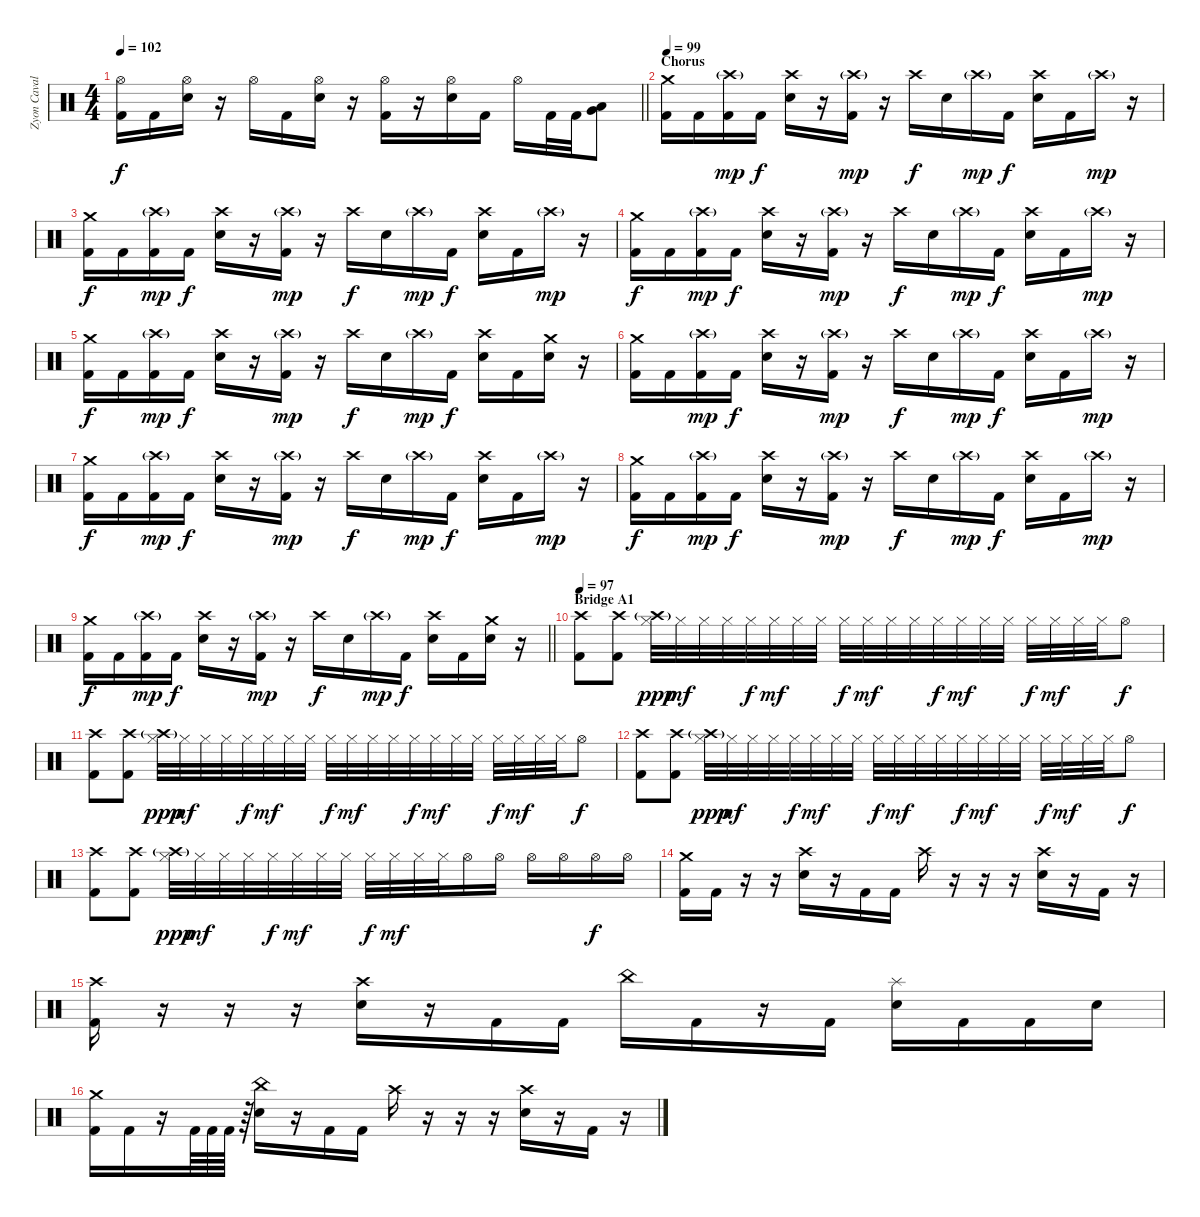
\track ("Zyon Cavalera" "Zyon Caval") {instrument percussion}
\staff {score}
\articulation defaults
\ts (4 4)
\tempo 102
\clef neutral
\barLineRight lightlight
\ks c
("Hi-Hat (open)" "Kick (hit) 2").16{dy f} "Kick (hit) 2".16 ("Hi-Hat (open)" "Snare (hit) 2").16 r.16 "Hi-Hat (open)".16 "Kick (hit) 2".16 ("Hi-Hat (open)" "Snare (hit) 2").16 r.16 ("Hi-Hat (open)" "Kick (hit) 2").16 r.16 ("Hi-Hat (open)" "Snare (hit) 2").16 "Kick (hit) 2".16 "Hi-Hat (open)".16 "Kick (hit) 2".32 "Kick (hit) 2".32 ("Very Low Tom (hit)" "Low Floor Tom (hit)").8 |
\section ("" "Chorus")
\tempo 99
("Crash medium (hit)" "Kick (hit) 2").16 "Kick (hit) 2".16 ("Crash high (hit)"{g} "Kick (hit) 2").16{dy mp} "Kick (hit) 2".16{dy f} ("Crash high (hit)" "Snare (hit) 2").16 r.16 ("Crash high (hit)"{g} "Kick (hit) 2").16{dy mp} r.16 "Crash high (hit)".16{dy f} "Snare (hit) 2".16 "Crash high (hit)"{g}.16{dy mp} "Kick (hit) 2".16{dy f} ("Crash high (hit)" "Snare (hit) 2").16 "Kick (hit) 2".16 "Crash high (hit)"{g}.16{dy mp} r.16 |
("Crash medium (hit)" "Kick (hit) 2").16{dy f} "Kick (hit) 2".16 ("Crash high (hit)"{g} "Kick (hit) 2").16{dy mp} "Kick (hit) 2".16{dy f} ("Crash high (hit)" "Snare (hit) 2").16 r.16 ("Crash high (hit)"{g} "Kick (hit) 2").16{dy mp} r.16 "Crash high (hit)".16{dy f} "Snare (hit) 2".16 "Crash high (hit)"{g}.16{dy mp} "Kick (hit) 2".16{dy f} ("Crash high (hit)" "Snare (hit) 2").16 "Kick (hit) 2".16 "Crash high (hit)"{g}.16{dy mp} r.16 |
("Crash medium (hit)" "Kick (hit) 2").16{dy f} "Kick (hit) 2".16 ("Crash high (hit)"{g} "Kick (hit) 2").16{dy mp} "Kick (hit) 2".16{dy f} ("Crash high (hit)" "Snare (hit) 2").16 r.16 ("Crash high (hit)"{g} "Kick (hit) 2").16{dy mp} r.16 "Crash high (hit)".16{dy f} "Snare (hit) 2".16 "Crash high (hit)"{g}.16{dy mp} "Kick (hit) 2".16{dy f} ("Crash high (hit)" "Snare (hit) 2").16 "Kick (hit) 2".16 "Crash high (hit)"{g}.16{dy mp} r.16 |
("Crash medium (hit)" "Kick (hit) 2").16{dy f} "Kick (hit) 2".16 ("Crash high (hit)"{g} "Kick (hit) 2").16{dy mp} "Kick (hit) 2".16{dy f} ("Crash high (hit)" "Snare (hit) 2").16 r.16 ("Crash high (hit)"{g} "Kick (hit) 2").16{dy mp} r.16 "Crash high (hit)".16{dy f} "Snare (hit) 2".16 "Crash high (hit)"{g}.16{dy mp} "Kick (hit) 2".16{dy f} ("Crash high (hit)" "Snare (hit) 2").16 "Kick (hit) 2".16 ("Crash medium (hit)" "Snare (hit) 2").16 r.16 |
("Crash medium (hit)" "Kick (hit) 2").16 "Kick (hit) 2".16 ("Crash high (hit)"{g} "Kick (hit) 2").16{dy mp} "Kick (hit) 2".16{dy f} ("Crash high (hit)" "Snare (hit) 2").16 r.16 ("Crash high (hit)"{g} "Kick (hit) 2").16{dy mp} r.16 "Crash high (hit)".16{dy f} "Snare (hit) 2".16 "Crash high (hit)"{g}.16{dy mp} "Kick (hit) 2".16{dy f} ("Crash high (hit)" "Snare (hit) 2").16 "Kick (hit) 2".16 "Crash high (hit)"{g}.16{dy mp} r.16 |
("Crash medium (hit)" "Kick (hit) 2").16{dy f} "Kick (hit) 2".16 ("Crash high (hit)"{g} "Kick (hit) 2").16{dy mp} "Kick (hit) 2".16{dy f} ("Crash high (hit)" "Snare (hit) 2").16 r.16 ("Crash high (hit)"{g} "Kick (hit) 2").16{dy mp} r.16 "Crash high (hit)".16{dy f} "Snare (hit) 2".16 "Crash high (hit)"{g}.16{dy mp} "Kick (hit) 2".16{dy f} ("Crash high (hit)" "Snare (hit) 2").16 "Kick (hit) 2".16 "Crash high (hit)"{g}.16{dy mp} r.16 |
("Crash medium (hit)" "Kick (hit) 2").16{dy f} "Kick (hit) 2".16 ("Crash high (hit)"{g} "Kick (hit) 2").16{dy mp} "Kick (hit) 2".16{dy f} ("Crash high (hit)" "Snare (hit) 2").16 r.16 ("Crash high (hit)"{g} "Kick (hit) 2").16{dy mp} r.16 "Crash high (hit)".16{dy f} "Snare (hit) 2".16 "Crash high (hit)"{g}.16{dy mp} "Kick (hit) 2".16{dy f} ("Crash high (hit)" "Snare (hit) 2").16 "Kick (hit) 2".16 "Crash high (hit)"{g}.16{dy mp} r.16 |
\barLineRight lightlight
("Crash medium (hit)" "Kick (hit) 2").16{dy f} "Kick (hit) 2".16 ("Crash high (hit)"{g} "Kick (hit) 2").16{dy mp} "Kick (hit) 2".16{dy f} ("Crash high (hit)" "Snare (hit) 2").16 r.16 ("Crash high (hit)"{g} "Kick (hit) 2").16{dy mp} r.16 "Crash high (hit)".16{dy f} "Snare (hit) 2".16 "Crash high (hit)"{g}.16{dy mp} "Kick (hit) 2".16{dy f} ("Crash high (hit)" "Snare (hit) 2").16 "Kick (hit) 2".16 ("Crash medium (hit)" "Snare (hit) 2").16 r.16 |
\section ("" "Bridge A1")
\tempo 97
("Crash high (hit)" "Kick (hit) 2").8 ("Crash high (hit)" "Kick (hit) 2").8 ("Crash high (hit)"{g} "Hi-Hat (closed)").32{dy ppp} "Hi-Hat (closed)".32{dy mf} "Hi-Hat (closed)".32 "Hi-Hat (closed)".32 "Hi-Hat (closed)".32{dy f} "Hi-Hat (closed)".32{dy mf} "Hi-Hat (closed)".32 "Hi-Hat (closed)".32 "Hi-Hat (closed)".32{dy f} "Hi-Hat (closed)".32{dy mf} "Hi-Hat (closed)".32 "Hi-Hat (closed)".32 "Hi-Hat (closed)".32{dy f} "Hi-Hat (closed)".32{dy mf} "Hi-Hat (closed)".32 "Hi-Hat (closed)".32 "Hi-Hat (closed)".32{dy f} "Hi-Hat (closed)".32{dy mf} "Hi-Hat (closed)".32 "Hi-Hat (closed)".32 "Hi-Hat (open)".8{dy f} |
("Crash high (hit)" "Kick (hit) 2").8 ("Crash high (hit)" "Kick (hit) 2").8 ("Crash high (hit)"{g} "Hi-Hat (closed)").32{dy ppp} "Hi-Hat (closed)".32{dy mf} "Hi-Hat (closed)".32 "Hi-Hat (closed)".32 "Hi-Hat (closed)".32{dy f} "Hi-Hat (closed)".32{dy mf} "Hi-Hat (closed)".32 "Hi-Hat (closed)".32 "Hi-Hat (closed)".32{dy f} "Hi-Hat (closed)".32{dy mf} "Hi-Hat (closed)".32 "Hi-Hat (closed)".32 "Hi-Hat (closed)".32{dy f} "Hi-Hat (closed)".32{dy mf} "Hi-Hat (closed)".32 "Hi-Hat (closed)".32 "Hi-Hat (closed)".32{dy f} "Hi-Hat (closed)".32{dy mf} "Hi-Hat (closed)".32 "Hi-Hat (closed)".32 "Hi-Hat (open)".8{dy f} |
("Crash high (hit)" "Kick (hit) 2").8 ("Crash high (hit)" "Kick (hit) 2").8 ("Crash high (hit)"{g} "Hi-Hat (closed)").32{dy ppp} "Hi-Hat (closed)".32{dy mf} "Hi-Hat (closed)".32 "Hi-Hat (closed)".32 "Hi-Hat (closed)".32{dy f} "Hi-Hat (closed)".32{dy mf} "Hi-Hat (closed)".32 "Hi-Hat (closed)".32 "Hi-Hat (closed)".32{dy f} "Hi-Hat (closed)".32{dy mf} "Hi-Hat (closed)".32 "Hi-Hat (closed)".32 "Hi-Hat (closed)".32{dy f} "Hi-Hat (closed)".32{dy mf} "Hi-Hat (closed)".32 "Hi-Hat (closed)".32 "Hi-Hat (closed)".32{dy f} "Hi-Hat (closed)".32{dy mf} "Hi-Hat (closed)".32 "Hi-Hat (closed)".32 "Hi-Hat (open)".8{dy f} |
("Crash high (hit)" "Kick (hit) 2").8 ("Crash high (hit)" "Kick (hit) 2").8 ("Crash high (hit)"{g} "Hi-Hat (closed)").32{dy ppp} "Hi-Hat (closed)".32{dy mf} "Hi-Hat (closed)".32 "Hi-Hat (closed)".32 "Hi-Hat (closed)".32{dy f} "Hi-Hat (closed)".32{dy mf} "Hi-Hat (closed)".32 "Hi-Hat (closed)".32 "Hi-Hat (closed)".32{dy f} "Hi-Hat (closed)".32{dy mf} "Hi-Hat (closed)".32 "Hi-Hat (closed)".32 "Hi-Hat (open)".16 "Hi-Hat (open)".16 "Hi-Hat (open)".16 "Hi-Hat (open)".16 "Hi-Hat (open)".16{dy f} "Hi-Hat (open)".16 |
("Crash medium (hit)" "Kick (hit) 2").16 "Kick (hit) 2".16 r.16 r.16 ("Crash high (hit)" "Snare (hit) 2").16 r.16 "Kick (hit) 2".16 "Kick (hit) 2".16 "Crash high (hit)".16 r.16 r.16 r.16 ("Crash high (hit)" "Snare (hit) 2").16 r.16 "Kick (hit) 2".16 r.16 |
("Crash high (hit)" "Kick (hit) 2").16 r.16 r.16 r.16 ("Crash high (hit)" "Snare (hit) 2").16 r.16 "Kick (hit) 2".16 "Kick (hit) 2".16 "China (hit)".16 "Kick (hit) 2".16 r.16 "Kick (hit) 2".16 ("Splash (hit)" "Snare (hit) 2").16 "Kick (hit) 2".16 "Kick (hit) 2".16 "Snare (hit) 2".16 |
("Crash medium (hit)" "Kick (hit) 2").16 "Kick (hit) 2".16 r.16 "Kick (hit) 2".64 "Kick (hit) 2".64 "Kick (hit) 2".64 r.64 ("China (hit)" "Snare (hit) 2").16 r.16 "Kick (hit) 2".16 "Kick (hit) 2".16 "Crash high (hit)".16 r.16 r.16 r.16 ("Crash high (hit)" "Snare (hit) 2").16 r.16 "Kick (hit) 2".16 r.16
